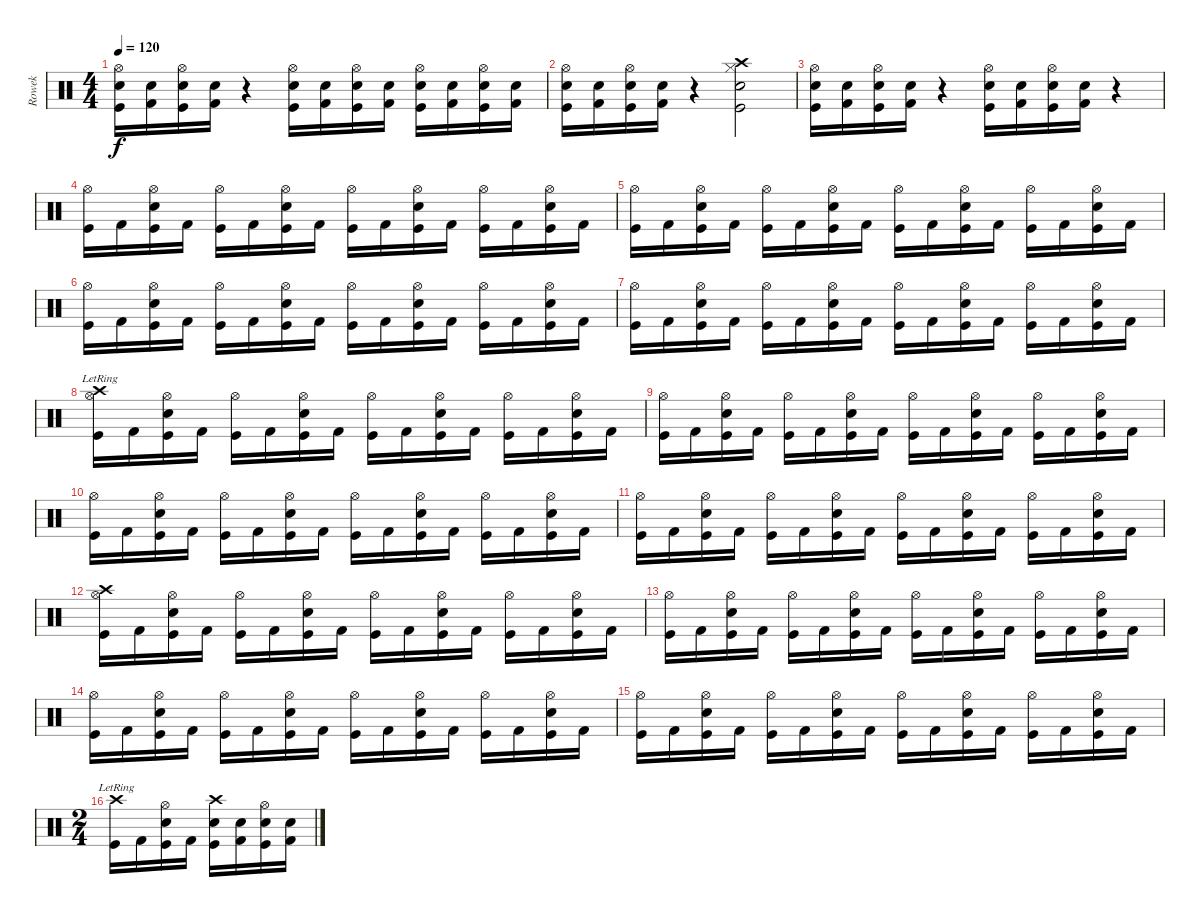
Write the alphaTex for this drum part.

\track ("Rowek" "Rowek") {instrument percussion}
\staff {score}
\articulation defaults
\ts (4 4)
\tempo 120
\clef neutral
\ks c
("Hi-Hat (open)" "Snare (hit) 2" "Kick (hit)").16{dy f} ("Snare (hit) 2" "Kick (hit) 2").16 ("Hi-Hat (open)" "Snare (hit) 2" "Kick (hit)").16 ("Snare (hit) 2" "Kick (hit) 2").16 r.4 ("Hi-Hat (open)" "Snare (hit) 2" "Kick (hit)").16 ("Snare (hit) 2" "Kick (hit) 2").16 ("Hi-Hat (open)" "Snare (hit) 2" "Kick (hit)").16 ("Snare (hit) 2" "Kick (hit) 2").16 ("Hi-Hat (open)" "Electric Snare (hit)" "Kick (hit)").16 ("Electric Snare (hit)" "Kick (hit) 2").16 ("Hi-Hat (open)" "Electric Snare (hit)" "Kick (hit)").16 ("Electric Snare (hit)" "Kick (hit) 2").16 |
("Hi-Hat (open)" "Snare (hit) 2" "Kick (hit)").16 ("Snare (hit) 2" "Kick (hit) 2").16 ("Hi-Hat (open)" "Snare (hit) 2" "Kick (hit)").16 ("Snare (hit) 2" "Kick (hit) 2").16 r.4 ("Hi-Hat (closed)" "Crash high (hit)" "Snare (hit) 2" "Kick (hit)").2 |
("Hi-Hat (open)" "Snare (hit) 2" "Kick (hit)").16 ("Snare (hit) 2" "Kick (hit) 2").16 ("Hi-Hat (open)" "Snare (hit) 2" "Kick (hit)").16 ("Snare (hit) 2" "Kick (hit) 2").16 r.4 ("Hi-Hat (open)" "Electric Snare (hit)" "Kick (hit)").16 ("Electric Snare (hit)" "Kick (hit) 2").16 ("Hi-Hat (open)" "Electric Snare (hit)" "Kick (hit)").16 ("Electric Snare (hit)" "Kick (hit) 2").16 r.4 |
("Hi-Hat (open)" "Kick (hit)").16 "Kick (hit) 2".16 ("Hi-Hat (open)" "Snare (hit) 2" "Kick (hit)").16 "Kick (hit) 2".16 ("Hi-Hat (open)" "Kick (hit)").16 "Kick (hit) 2".16 ("Hi-Hat (open)" "Snare (hit) 2" "Kick (hit)").16 "Kick (hit) 2".16 ("Hi-Hat (open)" "Kick (hit)").16 "Kick (hit) 2".16 ("Hi-Hat (open)" "Snare (hit) 2" "Kick (hit)").16 "Kick (hit) 2".16 ("Hi-Hat (open)" "Kick (hit)").16 "Kick (hit) 2".16 ("Hi-Hat (open)" "Snare (hit) 2" "Kick (hit)").16 "Kick (hit) 2".16 |
("Hi-Hat (open)" "Kick (hit)").16 "Kick (hit) 2".16 ("Hi-Hat (open)" "Snare (hit) 2" "Kick (hit)").16 "Kick (hit) 2".16 ("Hi-Hat (open)" "Kick (hit)").16 "Kick (hit) 2".16 ("Hi-Hat (open)" "Snare (hit) 2" "Kick (hit)").16 "Kick (hit) 2".16 ("Hi-Hat (open)" "Kick (hit)").16 "Kick (hit) 2".16 ("Hi-Hat (open)" "Snare (hit) 2" "Kick (hit)").16 "Kick (hit) 2".16 ("Hi-Hat (open)" "Kick (hit)").16 "Kick (hit) 2".16 ("Hi-Hat (open)" "Snare (hit) 2" "Kick (hit)").16 "Kick (hit) 2".16 |
("Hi-Hat (open)" "Kick (hit)").16 "Kick (hit) 2".16 ("Hi-Hat (open)" "Snare (hit) 2" "Kick (hit)").16 "Kick (hit) 2".16 ("Hi-Hat (open)" "Kick (hit)").16 "Kick (hit) 2".16 ("Hi-Hat (open)" "Snare (hit) 2" "Kick (hit)").16 "Kick (hit) 2".16 ("Hi-Hat (open)" "Kick (hit)").16 "Kick (hit) 2".16 ("Hi-Hat (open)" "Snare (hit) 2" "Kick (hit)").16 "Kick (hit) 2".16 ("Hi-Hat (open)" "Kick (hit)").16 "Kick (hit) 2".16 ("Hi-Hat (open)" "Snare (hit) 2" "Kick (hit)").16 "Kick (hit) 2".16 |
("Hi-Hat (open)" "Kick (hit)").16 "Kick (hit) 2".16 ("Hi-Hat (open)" "Snare (hit) 2" "Kick (hit)").16 "Kick (hit) 2".16 ("Hi-Hat (open)" "Kick (hit)").16 "Kick (hit) 2".16 ("Hi-Hat (open)" "Snare (hit) 2" "Kick (hit)").16 "Kick (hit) 2".16 ("Hi-Hat (open)" "Kick (hit)").16 "Kick (hit) 2".16 ("Hi-Hat (open)" "Snare (hit) 2" "Kick (hit)").16 "Kick (hit) 2".16 ("Hi-Hat (open)" "Kick (hit)").16 "Kick (hit) 2".16 ("Hi-Hat (open)" "Snare (hit) 2" "Kick (hit)").16 "Kick (hit) 2".16 |
("Hi-Hat (open)" "Crash high (hit)"{lr} "Kick (hit)").16 "Kick (hit) 2".16 ("Hi-Hat (open)" "Snare (hit) 2" "Kick (hit)").16 "Kick (hit) 2".16 ("Hi-Hat (open)" "Kick (hit)").16 "Kick (hit) 2".16 ("Hi-Hat (open)" "Snare (hit) 2" "Kick (hit)").16 "Kick (hit) 2".16 ("Hi-Hat (open)" "Kick (hit)").16 "Kick (hit) 2".16 ("Hi-Hat (open)" "Snare (hit) 2" "Kick (hit)").16 "Kick (hit) 2".16 ("Hi-Hat (open)" "Kick (hit)").16 "Kick (hit) 2".16 ("Hi-Hat (open)" "Snare (hit) 2" "Kick (hit)").16 "Kick (hit) 2".16 |
("Hi-Hat (open)" "Kick (hit)").16 "Kick (hit) 2".16 ("Hi-Hat (open)" "Snare (hit) 2" "Kick (hit)").16 "Kick (hit) 2".16 ("Hi-Hat (open)" "Kick (hit)").16 "Kick (hit) 2".16 ("Hi-Hat (open)" "Snare (hit) 2" "Kick (hit)").16 "Kick (hit) 2".16 ("Hi-Hat (open)" "Kick (hit)").16 "Kick (hit) 2".16 ("Hi-Hat (open)" "Snare (hit) 2" "Kick (hit)").16 "Kick (hit) 2".16 ("Hi-Hat (open)" "Kick (hit)").16 "Kick (hit) 2".16 ("Hi-Hat (open)" "Snare (hit) 2" "Kick (hit)").16 "Kick (hit) 2".16 |
("Hi-Hat (open)" "Kick (hit)").16 "Kick (hit) 2".16 ("Hi-Hat (open)" "Snare (hit) 2" "Kick (hit)").16 "Kick (hit) 2".16 ("Hi-Hat (open)" "Kick (hit)").16 "Kick (hit) 2".16 ("Hi-Hat (open)" "Snare (hit) 2" "Kick (hit)").16 "Kick (hit) 2".16 ("Hi-Hat (open)" "Kick (hit)").16 "Kick (hit) 2".16 ("Hi-Hat (open)" "Snare (hit) 2" "Kick (hit)").16 "Kick (hit) 2".16 ("Hi-Hat (open)" "Kick (hit)").16 "Kick (hit) 2".16 ("Hi-Hat (open)" "Snare (hit) 2" "Kick (hit)").16 "Kick (hit) 2".16 |
("Hi-Hat (open)" "Kick (hit)").16 "Kick (hit) 2".16 ("Hi-Hat (open)" "Snare (hit) 2" "Kick (hit)").16 "Kick (hit) 2".16 ("Hi-Hat (open)" "Kick (hit)").16 "Kick (hit) 2".16 ("Hi-Hat (open)" "Snare (hit) 2" "Kick (hit)").16 "Kick (hit) 2".16 ("Hi-Hat (open)" "Kick (hit)").16 "Kick (hit) 2".16 ("Hi-Hat (open)" "Snare (hit) 2" "Kick (hit)").16 "Kick (hit) 2".16 ("Hi-Hat (open)" "Kick (hit)").16 "Kick (hit) 2".16 ("Hi-Hat (open)" "Snare (hit) 2" "Kick (hit)").16 "Kick (hit) 2".16 |
("Hi-Hat (open)" "Crash high (hit)" "Kick (hit)").16 "Kick (hit) 2".16 ("Hi-Hat (open)" "Snare (hit) 2" "Kick (hit)").16 "Kick (hit) 2".16 ("Hi-Hat (open)" "Kick (hit)").16 "Kick (hit) 2".16 ("Hi-Hat (open)" "Snare (hit) 2" "Kick (hit)").16 "Kick (hit) 2".16 ("Hi-Hat (open)" "Kick (hit)").16 "Kick (hit) 2".16 ("Hi-Hat (open)" "Snare (hit) 2" "Kick (hit)").16 "Kick (hit) 2".16 ("Hi-Hat (open)" "Kick (hit)").16 "Kick (hit) 2".16 ("Hi-Hat (open)" "Snare (hit) 2" "Kick (hit)").16 "Kick (hit) 2".16 |
("Hi-Hat (open)" "Kick (hit)").16 "Kick (hit) 2".16 ("Hi-Hat (open)" "Snare (hit) 2" "Kick (hit)").16 "Kick (hit) 2".16 ("Hi-Hat (open)" "Kick (hit)").16 "Kick (hit) 2".16 ("Hi-Hat (open)" "Snare (hit) 2" "Kick (hit)").16 "Kick (hit) 2".16 ("Hi-Hat (open)" "Kick (hit)").16 "Kick (hit) 2".16 ("Hi-Hat (open)" "Snare (hit) 2" "Kick (hit)").16 "Kick (hit) 2".16 ("Hi-Hat (open)" "Kick (hit)").16 "Kick (hit) 2".16 ("Hi-Hat (open)" "Snare (hit) 2" "Kick (hit)").16 "Kick (hit) 2".16 |
("Hi-Hat (open)" "Kick (hit)").16 "Kick (hit) 2".16 ("Hi-Hat (open)" "Snare (hit) 2" "Kick (hit)").16 "Kick (hit) 2".16 ("Hi-Hat (open)" "Kick (hit)").16 "Kick (hit) 2".16 ("Hi-Hat (open)" "Snare (hit) 2" "Kick (hit)").16 "Kick (hit) 2".16 ("Hi-Hat (open)" "Kick (hit)").16 "Kick (hit) 2".16 ("Hi-Hat (open)" "Snare (hit) 2" "Kick (hit)").16 "Kick (hit) 2".16 ("Hi-Hat (open)" "Kick (hit)").16 "Kick (hit) 2".16 ("Hi-Hat (open)" "Snare (hit) 2" "Kick (hit)").16 "Kick (hit) 2".16 |
("Hi-Hat (open)" "Kick (hit)").16 "Kick (hit) 2".16 ("Hi-Hat (open)" "Snare (hit) 2" "Kick (hit)").16 "Kick (hit) 2".16 ("Hi-Hat (open)" "Kick (hit)").16 "Kick (hit) 2".16 ("Hi-Hat (open)" "Snare (hit) 2" "Kick (hit)").16 "Kick (hit) 2".16 ("Hi-Hat (open)" "Kick (hit)").16 "Kick (hit) 2".16 ("Hi-Hat (open)" "Snare (hit) 2" "Kick (hit)").16 "Kick (hit) 2".16 ("Hi-Hat (open)" "Kick (hit)").16 "Kick (hit) 2".16 ("Hi-Hat (open)" "Snare (hit) 2" "Kick (hit)").16 "Kick (hit) 2".16 |
\ts (2 4)
("Crash high (hit)"{lr} "Kick (hit)").16 "Kick (hit) 2".16 ("Hi-Hat (open)" "Snare (hit) 2" "Kick (hit)").16 "Kick (hit) 2".16 ("Crash high (hit)" "Snare (hit) 2" "Kick (hit)").16 ("Snare (hit) 2" "Kick (hit) 2").16 ("Hi-Hat (open)" "Snare (hit) 2" "Kick (hit)").16 ("Snare (hit) 2" "Kick (hit) 2").16
